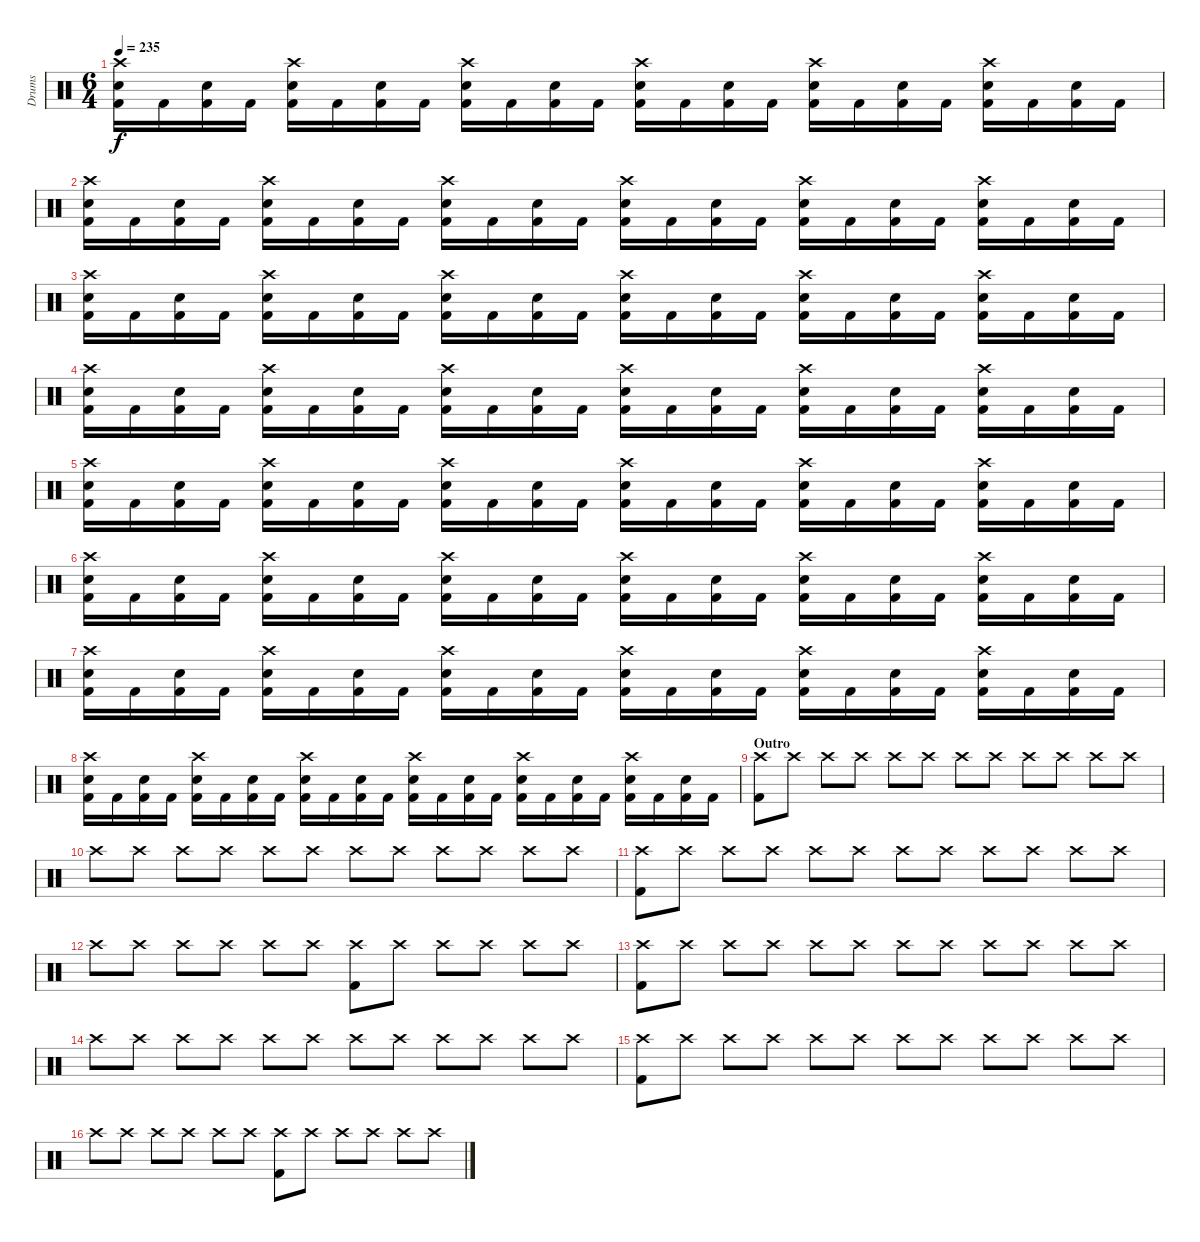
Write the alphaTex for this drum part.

\track ("Drums" "Drums") {instrument percussion}
\staff {score}
\articulation defaults
\ts (6 4)
\tempo 235
\clef neutral
\ks c
("Kick (hit) 2" "Snare (hit) 2" "Crash high (hit)").16{dy f} "Kick (hit) 2".16 ("Kick (hit) 2" "Snare (hit) 2").16 "Kick (hit) 2".16 ("Kick (hit) 2" "Snare (hit) 2" "Crash high (hit)").16 "Kick (hit) 2".16 ("Kick (hit) 2" "Snare (hit) 2").16 "Kick (hit) 2".16 ("Kick (hit) 2" "Snare (hit) 2" "Crash high (hit)").16 "Kick (hit) 2".16 ("Kick (hit) 2" "Snare (hit) 2").16 "Kick (hit) 2".16 ("Kick (hit) 2" "Snare (hit) 2" "Crash high (hit)").16 "Kick (hit) 2".16 ("Kick (hit) 2" "Snare (hit) 2").16 "Kick (hit) 2".16 ("Kick (hit) 2" "Snare (hit) 2" "Crash high (hit)").16 "Kick (hit) 2".16 ("Kick (hit) 2" "Snare (hit) 2").16 "Kick (hit) 2".16 ("Kick (hit) 2" "Snare (hit) 2" "Crash high (hit)").16 "Kick (hit) 2".16 ("Kick (hit) 2" "Snare (hit) 2").16 "Kick (hit) 2".16 |
("Kick (hit) 2" "Snare (hit) 2" "Crash high (hit)").16 "Kick (hit) 2".16 ("Kick (hit) 2" "Snare (hit) 2").16 "Kick (hit) 2".16 ("Kick (hit) 2" "Snare (hit) 2" "Crash high (hit)").16 "Kick (hit) 2".16 ("Kick (hit) 2" "Snare (hit) 2").16 "Kick (hit) 2".16 ("Kick (hit) 2" "Snare (hit) 2" "Crash high (hit)").16 "Kick (hit) 2".16 ("Kick (hit) 2" "Snare (hit) 2").16 "Kick (hit) 2".16 ("Kick (hit) 2" "Snare (hit) 2" "Crash high (hit)").16 "Kick (hit) 2".16 ("Kick (hit) 2" "Snare (hit) 2").16 "Kick (hit) 2".16 ("Kick (hit) 2" "Snare (hit) 2" "Crash high (hit)").16 "Kick (hit) 2".16 ("Kick (hit) 2" "Snare (hit) 2").16 "Kick (hit) 2".16 ("Kick (hit) 2" "Snare (hit) 2" "Crash high (hit)").16 "Kick (hit) 2".16 ("Kick (hit) 2" "Snare (hit) 2").16 "Kick (hit) 2".16 |
("Kick (hit) 2" "Snare (hit) 2" "Crash high (hit)").16 "Kick (hit) 2".16 ("Kick (hit) 2" "Snare (hit) 2").16 "Kick (hit) 2".16 ("Kick (hit) 2" "Snare (hit) 2" "Crash high (hit)").16 "Kick (hit) 2".16 ("Kick (hit) 2" "Snare (hit) 2").16 "Kick (hit) 2".16 ("Kick (hit) 2" "Snare (hit) 2" "Crash high (hit)").16 "Kick (hit) 2".16 ("Kick (hit) 2" "Snare (hit) 2").16 "Kick (hit) 2".16 ("Kick (hit) 2" "Snare (hit) 2" "Crash high (hit)").16 "Kick (hit) 2".16 ("Kick (hit) 2" "Snare (hit) 2").16 "Kick (hit) 2".16 ("Kick (hit) 2" "Snare (hit) 2" "Crash high (hit)").16 "Kick (hit) 2".16 ("Kick (hit) 2" "Snare (hit) 2").16 "Kick (hit) 2".16 ("Kick (hit) 2" "Snare (hit) 2" "Crash high (hit)").16 "Kick (hit) 2".16 ("Kick (hit) 2" "Snare (hit) 2").16 "Kick (hit) 2".16 |
("Kick (hit) 2" "Snare (hit) 2" "Crash high (hit)").16 "Kick (hit) 2".16 ("Kick (hit) 2" "Snare (hit) 2").16 "Kick (hit) 2".16 ("Kick (hit) 2" "Snare (hit) 2" "Crash high (hit)").16 "Kick (hit) 2".16 ("Kick (hit) 2" "Snare (hit) 2").16 "Kick (hit) 2".16 ("Kick (hit) 2" "Snare (hit) 2" "Crash high (hit)").16 "Kick (hit) 2".16 ("Kick (hit) 2" "Snare (hit) 2").16 "Kick (hit) 2".16 ("Kick (hit) 2" "Snare (hit) 2" "Crash high (hit)").16 "Kick (hit) 2".16 ("Kick (hit) 2" "Snare (hit) 2").16 "Kick (hit) 2".16 ("Kick (hit) 2" "Snare (hit) 2" "Crash high (hit)").16 "Kick (hit) 2".16 ("Kick (hit) 2" "Snare (hit) 2").16 "Kick (hit) 2".16 ("Kick (hit) 2" "Snare (hit) 2" "Crash high (hit)").16 "Kick (hit) 2".16 ("Kick (hit) 2" "Snare (hit) 2").16 "Kick (hit) 2".16 |
("Kick (hit) 2" "Snare (hit) 2" "Crash high (hit)").16 "Kick (hit) 2".16 ("Kick (hit) 2" "Snare (hit) 2").16 "Kick (hit) 2".16 ("Kick (hit) 2" "Snare (hit) 2" "Crash high (hit)").16 "Kick (hit) 2".16 ("Kick (hit) 2" "Snare (hit) 2").16 "Kick (hit) 2".16 ("Kick (hit) 2" "Snare (hit) 2" "Crash high (hit)").16 "Kick (hit) 2".16 ("Kick (hit) 2" "Snare (hit) 2").16 "Kick (hit) 2".16 ("Kick (hit) 2" "Snare (hit) 2" "Crash high (hit)").16 "Kick (hit) 2".16 ("Kick (hit) 2" "Snare (hit) 2").16 "Kick (hit) 2".16 ("Kick (hit) 2" "Snare (hit) 2" "Crash high (hit)").16 "Kick (hit) 2".16 ("Kick (hit) 2" "Snare (hit) 2").16 "Kick (hit) 2".16 ("Kick (hit) 2" "Snare (hit) 2" "Crash high (hit)").16 "Kick (hit) 2".16 ("Kick (hit) 2" "Snare (hit) 2").16 "Kick (hit) 2".16 |
("Kick (hit) 2" "Snare (hit) 2" "Crash high (hit)").16 "Kick (hit) 2".16 ("Kick (hit) 2" "Snare (hit) 2").16 "Kick (hit) 2".16 ("Kick (hit) 2" "Snare (hit) 2" "Crash high (hit)").16 "Kick (hit) 2".16 ("Kick (hit) 2" "Snare (hit) 2").16 "Kick (hit) 2".16 ("Kick (hit) 2" "Snare (hit) 2" "Crash high (hit)").16 "Kick (hit) 2".16 ("Kick (hit) 2" "Snare (hit) 2").16 "Kick (hit) 2".16 ("Kick (hit) 2" "Snare (hit) 2" "Crash high (hit)").16 "Kick (hit) 2".16 ("Kick (hit) 2" "Snare (hit) 2").16 "Kick (hit) 2".16 ("Kick (hit) 2" "Snare (hit) 2" "Crash high (hit)").16 "Kick (hit) 2".16 ("Kick (hit) 2" "Snare (hit) 2").16 "Kick (hit) 2".16 ("Kick (hit) 2" "Snare (hit) 2" "Crash high (hit)").16 "Kick (hit) 2".16 ("Kick (hit) 2" "Snare (hit) 2").16 "Kick (hit) 2".16 |
("Kick (hit) 2" "Snare (hit) 2" "Crash high (hit)").16 "Kick (hit) 2".16 ("Kick (hit) 2" "Snare (hit) 2").16 "Kick (hit) 2".16 ("Kick (hit) 2" "Snare (hit) 2" "Crash high (hit)").16 "Kick (hit) 2".16 ("Kick (hit) 2" "Snare (hit) 2").16 "Kick (hit) 2".16 ("Kick (hit) 2" "Snare (hit) 2" "Crash high (hit)").16 "Kick (hit) 2".16 ("Kick (hit) 2" "Snare (hit) 2").16 "Kick (hit) 2".16 ("Kick (hit) 2" "Snare (hit) 2" "Crash high (hit)").16 "Kick (hit) 2".16 ("Kick (hit) 2" "Snare (hit) 2").16 "Kick (hit) 2".16 ("Kick (hit) 2" "Snare (hit) 2" "Crash high (hit)").16 "Kick (hit) 2".16 ("Kick (hit) 2" "Snare (hit) 2").16 "Kick (hit) 2".16 ("Kick (hit) 2" "Snare (hit) 2" "Crash high (hit)").16 "Kick (hit) 2".16 ("Kick (hit) 2" "Snare (hit) 2").16 "Kick (hit) 2".16 |
("Kick (hit) 2" "Snare (hit) 2" "Crash high (hit)").16 "Kick (hit) 2".16 ("Kick (hit) 2" "Snare (hit) 2").16 "Kick (hit) 2".16 ("Kick (hit) 2" "Snare (hit) 2" "Crash high (hit)").16 "Kick (hit) 2".16 ("Kick (hit) 2" "Snare (hit) 2").16 "Kick (hit) 2".16 ("Kick (hit) 2" "Snare (hit) 2" "Crash high (hit)").16 "Kick (hit) 2".16 ("Kick (hit) 2" "Snare (hit) 2").16 "Kick (hit) 2".16 ("Kick (hit) 2" "Snare (hit) 2" "Crash high (hit)").16 "Kick (hit) 2".16 ("Kick (hit) 2" "Snare (hit) 2").16 "Kick (hit) 2".16 ("Kick (hit) 2" "Snare (hit) 2" "Crash high (hit)").16 "Kick (hit) 2".16 ("Kick (hit) 2" "Snare (hit) 2").16 "Kick (hit) 2".16 ("Kick (hit) 2" "Snare (hit) 2" "Crash high (hit)").16 "Kick (hit) 2".16 ("Kick (hit) 2" "Snare (hit) 2").16 "Kick (hit) 2".16 |
\section ("" "Outro")
("Kick (hit) 2" "Crash high (hit)").8 "Crash high (hit)".8 "Crash high (hit)".8 "Crash high (hit)".8 "Crash high (hit)".8 "Crash high (hit)".8 "Crash high (hit)".8 "Crash high (hit)".8 "Crash high (hit)".8 "Crash high (hit)".8 "Crash high (hit)".8 "Crash high (hit)".8 |
"Crash high (hit)".8 "Crash high (hit)".8 "Crash high (hit)".8 "Crash high (hit)".8 "Crash high (hit)".8 "Crash high (hit)".8 "Crash high (hit)".8 "Crash high (hit)".8 "Crash high (hit)".8 "Crash high (hit)".8 "Crash high (hit)".8 "Crash high (hit)".8 |
("Kick (hit) 2" "Crash high (hit)").8 "Crash high (hit)".8 "Crash high (hit)".8 "Crash high (hit)".8 "Crash high (hit)".8 "Crash high (hit)".8 "Crash high (hit)".8 "Crash high (hit)".8 "Crash high (hit)".8 "Crash high (hit)".8 "Crash high (hit)".8 "Crash high (hit)".8 |
"Crash high (hit)".8 "Crash high (hit)".8 "Crash high (hit)".8 "Crash high (hit)".8 "Crash high (hit)".8 "Crash high (hit)".8 ("Kick (hit) 2" "Crash high (hit)").8 "Crash high (hit)".8 "Crash high (hit)".8 "Crash high (hit)".8 "Crash high (hit)".8 "Crash high (hit)".8 |
("Kick (hit) 2" "Crash high (hit)").8 "Crash high (hit)".8 "Crash high (hit)".8 "Crash high (hit)".8 "Crash high (hit)".8 "Crash high (hit)".8 "Crash high (hit)".8 "Crash high (hit)".8 "Crash high (hit)".8 "Crash high (hit)".8 "Crash high (hit)".8 "Crash high (hit)".8 |
"Crash high (hit)".8 "Crash high (hit)".8 "Crash high (hit)".8 "Crash high (hit)".8 "Crash high (hit)".8 "Crash high (hit)".8 "Crash high (hit)".8 "Crash high (hit)".8 "Crash high (hit)".8 "Crash high (hit)".8 "Crash high (hit)".8 "Crash high (hit)".8 |
("Kick (hit) 2" "Crash high (hit)").8 "Crash high (hit)".8 "Crash high (hit)".8 "Crash high (hit)".8 "Crash high (hit)".8 "Crash high (hit)".8 "Crash high (hit)".8 "Crash high (hit)".8 "Crash high (hit)".8 "Crash high (hit)".8 "Crash high (hit)".8 "Crash high (hit)".8 |
"Crash high (hit)".8 "Crash high (hit)".8 "Crash high (hit)".8 "Crash high (hit)".8 "Crash high (hit)".8 "Crash high (hit)".8 ("Kick (hit) 2" "Crash high (hit)").8 "Crash high (hit)".8 "Crash high (hit)".8 "Crash high (hit)".8 "Crash high (hit)".8 "Crash high (hit)".8
